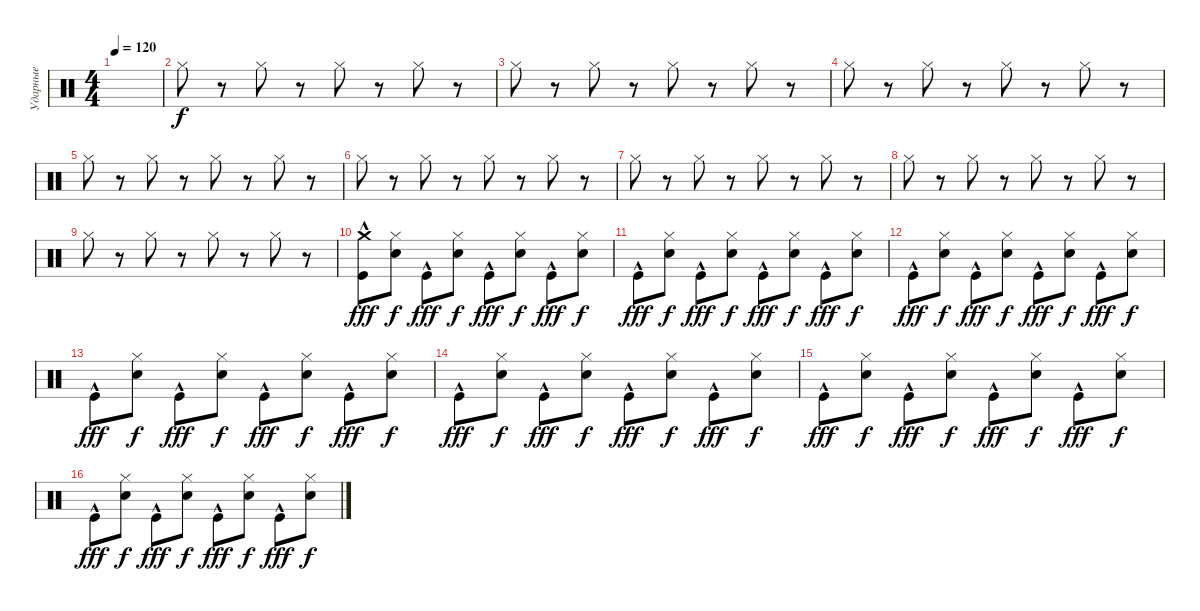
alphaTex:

\track ("Ударные" "Ударные") {instrument percussion}
\staff {score}
\articulation defaults
\ts (4 4)
\tempo 120
\clef neutral
\ks c
|
"Hi-Hat (closed)".8 r.8 "Hi-Hat (closed)".8 r.8 "Hi-Hat (closed)".8 r.8 "Hi-Hat (closed)".8 r.8 |
"Hi-Hat (closed)".8 r.8 "Hi-Hat (closed)".8 r.8 "Hi-Hat (closed)".8 r.8 "Hi-Hat (closed)".8 r.8 |
"Hi-Hat (closed)".8 r.8 "Hi-Hat (closed)".8 r.8 "Hi-Hat (closed)".8 r.8 "Hi-Hat (closed)".8 r.8 |
"Hi-Hat (closed)".8 r.8 "Hi-Hat (closed)".8 r.8 "Hi-Hat (closed)".8 r.8 "Hi-Hat (closed)".8 r.8 |
"Hi-Hat (closed)".8 r.8 "Hi-Hat (closed)".8 r.8 "Hi-Hat (closed)".8 r.8 "Hi-Hat (closed)".8 r.8 |
"Hi-Hat (closed)".8 r.8 "Hi-Hat (closed)".8 r.8 "Hi-Hat (closed)".8 r.8 "Hi-Hat (closed)".8 r.8 |
"Hi-Hat (closed)".8 r.8 "Hi-Hat (closed)".8 r.8 "Hi-Hat (closed)".8 r.8 "Hi-Hat (closed)".8 r.8 |
"Hi-Hat (closed)".8 r.8 "Hi-Hat (closed)".8 r.8 "Hi-Hat (closed)".8 r.8 "Hi-Hat (closed)".8 r.8 |
("Kick (hit)"{hac} "Crash medium (hit)").8{dy fff} ("Hand Clap (hit)" "Hi-Hat (closed)").8{dy f} "Kick (hit)"{hac}.8{dy fff} ("Hand Clap (hit)" "Hi-Hat (closed)").8{dy f} "Kick (hit)"{hac}.8{dy fff} ("Hand Clap (hit)" "Hi-Hat (closed)").8{dy f} "Kick (hit)"{hac}.8{dy fff} ("Hand Clap (hit)" "Hi-Hat (closed)").8{dy f} |
"Kick (hit)"{hac}.8{dy fff} ("Hand Clap (hit)" "Hi-Hat (closed)").8{dy f} "Kick (hit)"{hac}.8{dy fff} ("Hand Clap (hit)" "Hi-Hat (closed)").8{dy f} "Kick (hit)"{hac}.8{dy fff} ("Hand Clap (hit)" "Hi-Hat (closed)").8{dy f} "Kick (hit)"{hac}.8{dy fff} ("Hand Clap (hit)" "Hi-Hat (closed)").8{dy f} |
"Kick (hit)"{hac}.8{dy fff} ("Hand Clap (hit)" "Hi-Hat (closed)").8{dy f} "Kick (hit)"{hac}.8{dy fff} ("Hand Clap (hit)" "Hi-Hat (closed)").8{dy f} "Kick (hit)"{hac}.8{dy fff} ("Hand Clap (hit)" "Hi-Hat (closed)").8{dy f} "Kick (hit)"{hac}.8{dy fff} ("Hand Clap (hit)" "Hi-Hat (closed)").8{dy f} |
"Kick (hit)"{hac}.8{dy fff} ("Hand Clap (hit)" "Hi-Hat (closed)").8{dy f} "Kick (hit)"{hac}.8{dy fff} ("Hand Clap (hit)" "Hi-Hat (closed)").8{dy f} "Kick (hit)"{hac}.8{dy fff} ("Hand Clap (hit)" "Hi-Hat (closed)").8{dy f} "Kick (hit)"{hac}.8{dy fff} ("Hand Clap (hit)" "Hi-Hat (closed)").8{dy f} |
"Kick (hit)"{hac}.8{dy fff} ("Hand Clap (hit)" "Hi-Hat (closed)").8{dy f} "Kick (hit)"{hac}.8{dy fff} ("Hand Clap (hit)" "Hi-Hat (closed)").8{dy f} "Kick (hit)"{hac}.8{dy fff} ("Hand Clap (hit)" "Hi-Hat (closed)").8{dy f} "Kick (hit)"{hac}.8{dy fff} ("Hand Clap (hit)" "Hi-Hat (closed)").8{dy f} |
"Kick (hit)"{hac}.8{dy fff} ("Hand Clap (hit)" "Hi-Hat (closed)").8{dy f} "Kick (hit)"{hac}.8{dy fff} ("Hand Clap (hit)" "Hi-Hat (closed)").8{dy f} "Kick (hit)"{hac}.8{dy fff} ("Hand Clap (hit)" "Hi-Hat (closed)").8{dy f} "Kick (hit)"{hac}.8{dy fff} ("Hand Clap (hit)" "Hi-Hat (closed)").8{dy f} |
"Kick (hit)"{hac}.8{dy fff} ("Hand Clap (hit)" "Hi-Hat (closed)").8{dy f} "Kick (hit)"{hac}.8{dy fff} ("Hand Clap (hit)" "Hi-Hat (closed)").8{dy f} "Kick (hit)"{hac}.8{dy fff} ("Hand Clap (hit)" "Hi-Hat (closed)").8{dy f} "Kick (hit)"{hac}.8{dy fff} ("Hand Clap (hit)" "Hi-Hat (closed)").8{dy f}
